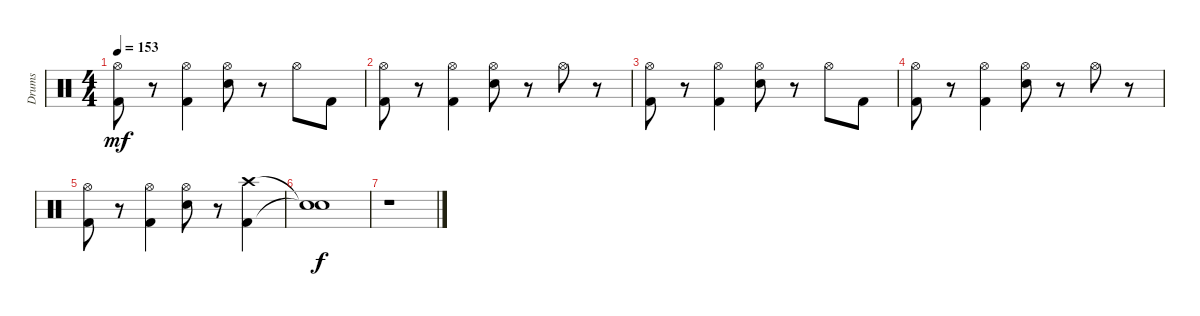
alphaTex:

\track ("Drums" "Drums") {instrument percussion}
\staff {score}
\articulation defaults
\ts (4 4)
\tempo 153
\clef neutral
\ks c
("Kick (hit) 2" "Hi-Hat (open)").8{dy mf} r.8 ("Kick (hit) 2" "Hi-Hat (open)").4 ("Electric Snare (hit)" "Hi-Hat (open)").8 r.8 "Hi-Hat (open)".8 "Kick (hit) 2".8 |
("Kick (hit) 2" "Hi-Hat (open)").8 r.8 ("Kick (hit) 2" "Hi-Hat (open)").4 ("Electric Snare (hit)" "Hi-Hat (open)").8 r.8 "Hi-Hat (open)".8 r.8 |
("Kick (hit) 2" "Hi-Hat (open)").8 r.8 ("Kick (hit) 2" "Hi-Hat (open)").4 ("Electric Snare (hit)" "Hi-Hat (open)").8 r.8 "Hi-Hat (open)".8 "Kick (hit) 2".8 |
("Kick (hit) 2" "Hi-Hat (open)").8 r.8 ("Kick (hit) 2" "Hi-Hat (open)").4 ("Electric Snare (hit)" "Hi-Hat (open)").8 r.8 "Hi-Hat (open)".8 r.8 |
("Kick (hit) 2" "Hi-Hat (open)").8 r.8 ("Kick (hit) 2" "Hi-Hat (open)").4 ("Electric Snare (hit)" "Hi-Hat (open)").8 r.8 ("Kick (hit) 2" "Crash high (hit)").4 |
("Snare (hit)"{t} "Snare (hit)"{t}).1{dy f} |
r.1
